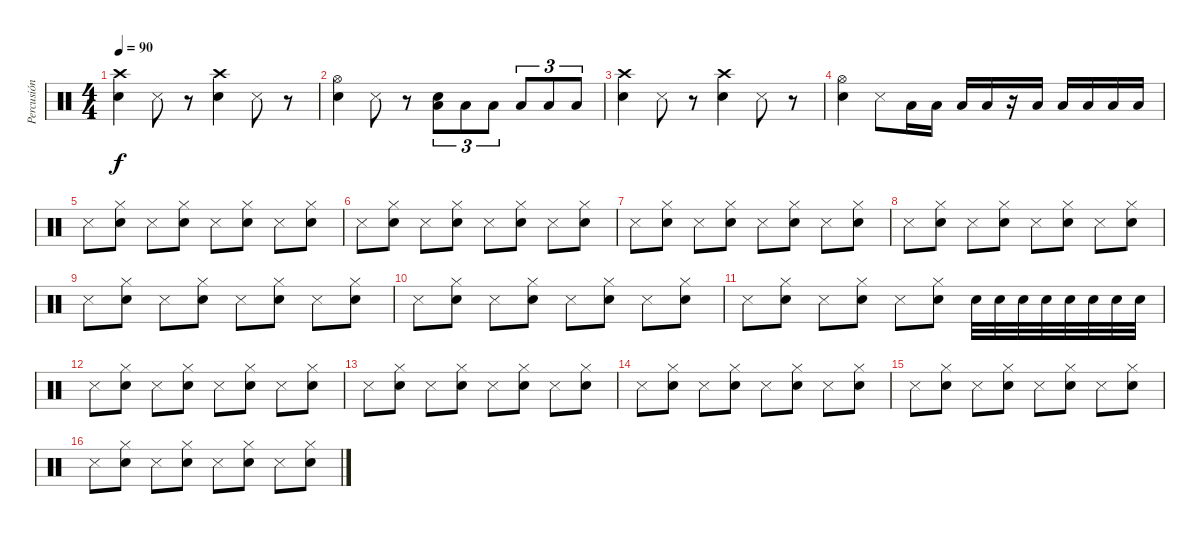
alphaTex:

\track ("Percusión" "Percusión") {instrument percussion}
\staff {score}
\articulation defaults
\ts (4 4)
\tempo 90
\clef neutral
\ks c
("Crash high (hit)" "Electric Snare (hit)").4{dy f} "Snare (side stick) 3".8 r.8 ("Crash high (hit)" "Electric Snare (hit)").4 "Snare (side stick) 3".8 r.8 |
("Hi-Hat (open)" "Electric Snare (hit)").4 "Snare (side stick) 3".8 r.8 ("Electric Snare (hit)" "Low Tom (hit)").8{tu (3 2)} "Low Tom (hit)".8{tu (3 2)} "Low Tom (hit)".8{tu (3 2)} "Low Tom (hit)".8{tu (3 2)} "Low Tom (hit)".8{tu (3 2)} "Low Tom (hit)".8{tu (3 2)} |
("Crash high (hit)" "Electric Snare (hit)").4 "Snare (side stick) 3".8 r.8 ("Crash high (hit)" "Electric Snare (hit)").4 "Snare (side stick) 3".8 r.8 |
("Hi-Hat (open)" "Electric Snare (hit)").4 "Snare (side stick) 3".8 "Low Tom (hit)".16 "Low Tom (hit)".16 "Low Tom (hit)".16 "Low Tom (hit)".16 r.16 "Low Tom (hit)".16 "Low Tom (hit)".16 "Low Tom (hit)".16 "Low Tom (hit)".16 "Low Tom (hit)".16 |
"Snare (side stick) 3".8 ("Electric Snare (hit)" "Hi-Hat (closed)").8 "Snare (side stick) 3".8 ("Electric Snare (hit)" "Hi-Hat (closed)").8 "Snare (side stick) 3".8 ("Electric Snare (hit)" "Hi-Hat (closed)").8 "Snare (side stick) 3".8 ("Electric Snare (hit)" "Hi-Hat (closed)").8 |
"Snare (side stick) 3".8 ("Electric Snare (hit)" "Hi-Hat (closed)").8 "Snare (side stick) 3".8 ("Electric Snare (hit)" "Hi-Hat (closed)").8 "Snare (side stick) 3".8 ("Electric Snare (hit)" "Hi-Hat (closed)").8 "Snare (side stick) 3".8 ("Electric Snare (hit)" "Hi-Hat (closed)").8 |
"Snare (side stick) 3".8 ("Electric Snare (hit)" "Hi-Hat (closed)").8 "Snare (side stick) 3".8 ("Electric Snare (hit)" "Hi-Hat (closed)").8 "Snare (side stick) 3".8 ("Electric Snare (hit)" "Hi-Hat (closed)").8 "Snare (side stick) 3".8 ("Electric Snare (hit)" "Hi-Hat (closed)").8 |
"Snare (side stick) 3".8 ("Electric Snare (hit)" "Hi-Hat (closed)").8 "Snare (side stick) 3".8 ("Electric Snare (hit)" "Hi-Hat (closed)").8 "Snare (side stick) 3".8 ("Electric Snare (hit)" "Hi-Hat (closed)").8 "Snare (side stick) 3".8 ("Electric Snare (hit)" "Hi-Hat (closed)").8 |
"Snare (side stick) 3".8 ("Electric Snare (hit)" "Hi-Hat (closed)").8 "Snare (side stick) 3".8 ("Electric Snare (hit)" "Hi-Hat (closed)").8 "Snare (side stick) 3".8 ("Electric Snare (hit)" "Hi-Hat (closed)").8 "Snare (side stick) 3".8 ("Electric Snare (hit)" "Hi-Hat (closed)").8 |
"Snare (side stick) 3".8 ("Electric Snare (hit)" "Hi-Hat (closed)").8 "Snare (side stick) 3".8 ("Electric Snare (hit)" "Hi-Hat (closed)").8 "Snare (side stick) 3".8 ("Electric Snare (hit)" "Hi-Hat (closed)").8 "Snare (side stick) 3".8 ("Electric Snare (hit)" "Hi-Hat (closed)").8 |
"Snare (side stick) 3".8 ("Electric Snare (hit)" "Hi-Hat (closed)").8 "Snare (side stick) 3".8 ("Electric Snare (hit)" "Hi-Hat (closed)").8 "Snare (side stick) 3".8 ("Electric Snare (hit)" "Hi-Hat (closed)").8 "Electric Snare (hit)".32{volume 8} "Electric Snare (hit)".32{volume 9} "Electric Snare (hit)".32{volume 11} "Electric Snare (hit)".32{volume 12} "Electric Snare (hit)".32{volume 13} "Electric Snare (hit)".32{volume 14} "Electric Snare (hit)".32{volume 15} "Electric Snare (hit)".32{volume 16} |
"Snare (side stick) 3".8 ("Electric Snare (hit)" "Hi-Hat (closed)").8 "Snare (side stick) 3".8 ("Electric Snare (hit)" "Hi-Hat (closed)").8 "Snare (side stick) 3".8 ("Electric Snare (hit)" "Hi-Hat (closed)").8 "Snare (side stick) 3".8 ("Electric Snare (hit)" "Hi-Hat (closed)").8 |
"Snare (side stick) 3".8 ("Electric Snare (hit)" "Hi-Hat (closed)").8 "Snare (side stick) 3".8 ("Electric Snare (hit)" "Hi-Hat (closed)").8 "Snare (side stick) 3".8 ("Electric Snare (hit)" "Hi-Hat (closed)").8 "Snare (side stick) 3".8 ("Electric Snare (hit)" "Hi-Hat (closed)").8 |
"Snare (side stick) 3".8 ("Electric Snare (hit)" "Hi-Hat (closed)").8 "Snare (side stick) 3".8 ("Electric Snare (hit)" "Hi-Hat (closed)").8 "Snare (side stick) 3".8 ("Electric Snare (hit)" "Hi-Hat (closed)").8 "Snare (side stick) 3".8 ("Electric Snare (hit)" "Hi-Hat (closed)").8 |
"Snare (side stick) 3".8 ("Electric Snare (hit)" "Hi-Hat (closed)").8 "Snare (side stick) 3".8 ("Electric Snare (hit)" "Hi-Hat (closed)").8 "Snare (side stick) 3".8 ("Electric Snare (hit)" "Hi-Hat (closed)").8 "Snare (side stick) 3".8 ("Electric Snare (hit)" "Hi-Hat (closed)").8 |
"Snare (side stick) 3".8 ("Electric Snare (hit)" "Hi-Hat (closed)").8 "Snare (side stick) 3".8 ("Electric Snare (hit)" "Hi-Hat (closed)").8 "Snare (side stick) 3".8 ("Electric Snare (hit)" "Hi-Hat (closed)").8 "Snare (side stick) 3".8 ("Electric Snare (hit)" "Hi-Hat (closed)").8
